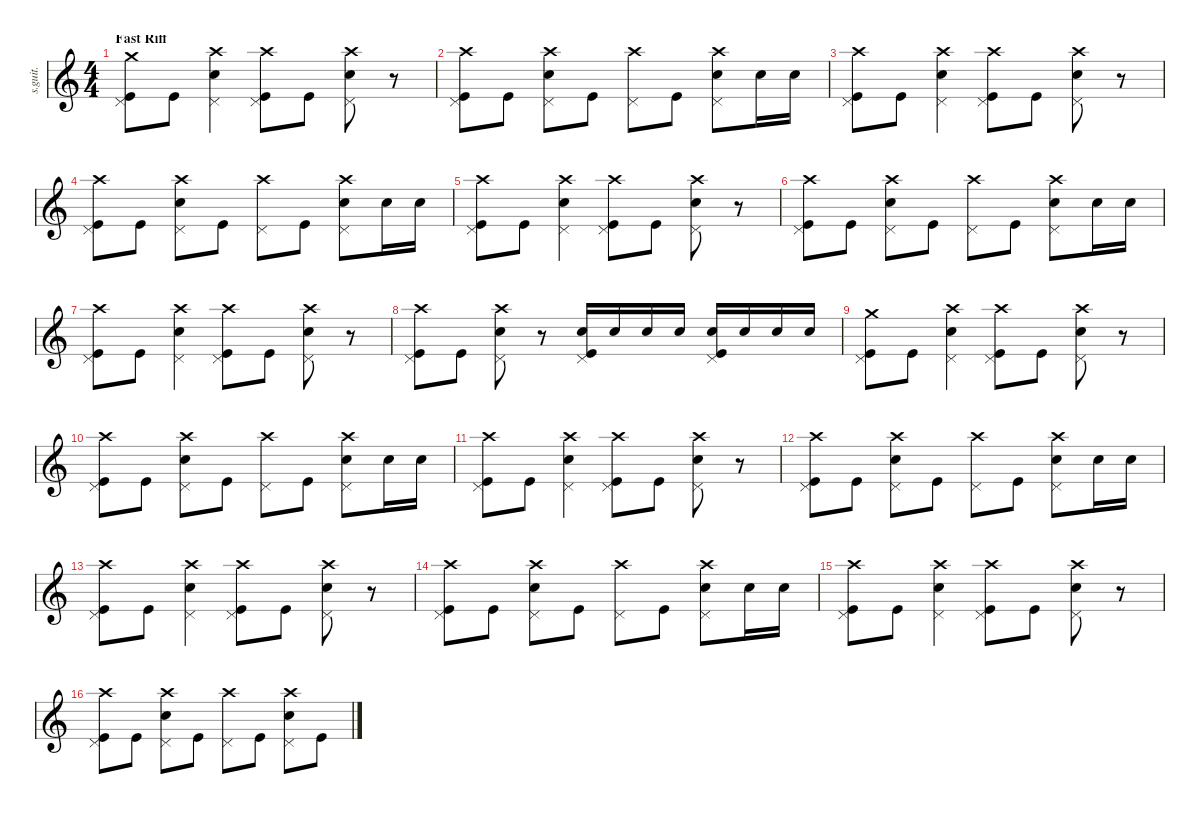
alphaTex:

\defaultSystemsLayout 4
\hideDynamics
\bracketExtendMode nobrackets
\track ("Dave Grohl" "s.guit.") {instrument percussion}
\staff {score}
\articulation defaults
\ts (4 4)
\section ("" "Fast Riff")
\tempo (210 hide)
\clef g2
\ks c
("Crash medium (hit)" "Kick (hit)" "Pedal Hi-Hat (hit)").8{lyrics (0 "") lyrics (1 "") lyrics (2 "") lyrics (3 "") lyrics (4 "") dy f} "Kick (hit)".8{lyrics (0 "") lyrics (1 "") lyrics (2 "") lyrics (3 "") lyrics (4 "")} ("Snare (hit) 2" "Crash high (hit)" "Pedal Hi-Hat (hit)").4{lyrics (0 "") lyrics (1 "") lyrics (2 "") lyrics (3 "") lyrics (4 "")} ("Kick (hit)" "Crash high (hit)" "Pedal Hi-Hat (hit)").8{lyrics (0 "") lyrics (1 "") lyrics (2 "") lyrics (3 "") lyrics (4 "")} "Kick (hit)".8{lyrics (0 "") lyrics (1 "") lyrics (2 "") lyrics (3 "") lyrics (4 "")} ("Snare (hit) 2" "Crash high (hit)" "Pedal Hi-Hat (hit)").8{lyrics (0 "") lyrics (1 "") lyrics (2 "") lyrics (3 "") lyrics (4 "")} r.8 |
("Kick (hit)" "Crash high (hit)" "Pedal Hi-Hat (hit)").8{lyrics (0 "") lyrics (1 "") lyrics (2 "") lyrics (3 "") lyrics (4 "")} "Kick (hit)".8{lyrics (0 "") lyrics (1 "") lyrics (2 "") lyrics (3 "") lyrics (4 "")} ("Snare (hit) 2" "Crash high (hit)" "Pedal Hi-Hat (hit)").8{lyrics (0 "") lyrics (1 "") lyrics (2 "") lyrics (3 "") lyrics (4 "")} "Kick (hit)".8{lyrics (0 "") lyrics (1 "") lyrics (2 "") lyrics (3 "") lyrics (4 "")} ("Crash high (hit)" "Pedal Hi-Hat (hit)").8{lyrics (0 "") lyrics (1 "") lyrics (2 "") lyrics (3 "") lyrics (4 "")} "Kick (hit)".8{lyrics (0 "") lyrics (1 "") lyrics (2 "") lyrics (3 "") lyrics (4 "")} ("Snare (hit) 2" "Crash high (hit)" "Pedal Hi-Hat (hit)").8{lyrics (0 "") lyrics (1 "") lyrics (2 "") lyrics (3 "") lyrics (4 "")} "Snare (hit) 2".16{lyrics (0 "") lyrics (1 "") lyrics (2 "") lyrics (3 "") lyrics (4 "") dy mf} "Snare (hit) 2".16{lyrics (0 "") lyrics (1 "") lyrics (2 "") lyrics (3 "") lyrics (4 "")} |
("Kick (hit)" "Crash high (hit)" "Pedal Hi-Hat (hit)").8{lyrics (0 "") lyrics (1 "") lyrics (2 "") lyrics (3 "") lyrics (4 "") dy f} "Kick (hit)".8{lyrics (0 "") lyrics (1 "") lyrics (2 "") lyrics (3 "") lyrics (4 "")} ("Snare (hit) 2" "Crash high (hit)" "Pedal Hi-Hat (hit)").4{lyrics (0 "") lyrics (1 "") lyrics (2 "") lyrics (3 "") lyrics (4 "")} ("Kick (hit)" "Crash high (hit)" "Pedal Hi-Hat (hit)").8{lyrics (0 "") lyrics (1 "") lyrics (2 "") lyrics (3 "") lyrics (4 "")} "Kick (hit)".8{lyrics (0 "") lyrics (1 "") lyrics (2 "") lyrics (3 "") lyrics (4 "")} ("Snare (hit) 2" "Crash high (hit)" "Pedal Hi-Hat (hit)").8{lyrics (0 "") lyrics (1 "") lyrics (2 "") lyrics (3 "") lyrics (4 "")} r.8 |
("Kick (hit)" "Crash high (hit)" "Pedal Hi-Hat (hit)").8{lyrics (0 "") lyrics (1 "") lyrics (2 "") lyrics (3 "") lyrics (4 "")} "Kick (hit)".8{lyrics (0 "") lyrics (1 "") lyrics (2 "") lyrics (3 "") lyrics (4 "")} ("Snare (hit) 2" "Crash high (hit)" "Pedal Hi-Hat (hit)").8{lyrics (0 "") lyrics (1 "") lyrics (2 "") lyrics (3 "") lyrics (4 "")} "Kick (hit)".8{lyrics (0 "") lyrics (1 "") lyrics (2 "") lyrics (3 "") lyrics (4 "")} ("Crash high (hit)" "Pedal Hi-Hat (hit)").8{lyrics (0 "") lyrics (1 "") lyrics (2 "") lyrics (3 "") lyrics (4 "")} "Kick (hit)".8{lyrics (0 "") lyrics (1 "") lyrics (2 "") lyrics (3 "") lyrics (4 "")} ("Snare (hit) 2" "Crash high (hit)" "Pedal Hi-Hat (hit)").8{lyrics (0 "") lyrics (1 "") lyrics (2 "") lyrics (3 "") lyrics (4 "")} "Snare (hit) 2".16{lyrics (0 "") lyrics (1 "") lyrics (2 "") lyrics (3 "") lyrics (4 "") dy mf} "Snare (hit) 2".16{lyrics (0 "") lyrics (1 "") lyrics (2 "") lyrics (3 "") lyrics (4 "")} |
("Kick (hit)" "Crash high (hit)" "Pedal Hi-Hat (hit)").8{lyrics (0 "") lyrics (1 "") lyrics (2 "") lyrics (3 "") lyrics (4 "") dy f} "Kick (hit)".8{lyrics (0 "") lyrics (1 "") lyrics (2 "") lyrics (3 "") lyrics (4 "")} ("Snare (hit) 2" "Crash high (hit)" "Pedal Hi-Hat (hit)").4{lyrics (0 "") lyrics (1 "") lyrics (2 "") lyrics (3 "") lyrics (4 "")} ("Kick (hit)" "Crash high (hit)" "Pedal Hi-Hat (hit)").8{lyrics (0 "") lyrics (1 "") lyrics (2 "") lyrics (3 "") lyrics (4 "")} "Kick (hit)".8{lyrics (0 "") lyrics (1 "") lyrics (2 "") lyrics (3 "") lyrics (4 "")} ("Snare (hit) 2" "Crash high (hit)" "Pedal Hi-Hat (hit)").8{lyrics (0 "") lyrics (1 "") lyrics (2 "") lyrics (3 "") lyrics (4 "")} r.8 |
("Kick (hit)" "Crash high (hit)" "Pedal Hi-Hat (hit)").8{lyrics (0 "") lyrics (1 "") lyrics (2 "") lyrics (3 "") lyrics (4 "")} "Kick (hit)".8{lyrics (0 "") lyrics (1 "") lyrics (2 "") lyrics (3 "") lyrics (4 "")} ("Snare (hit) 2" "Crash high (hit)" "Pedal Hi-Hat (hit)").8{lyrics (0 "") lyrics (1 "") lyrics (2 "") lyrics (3 "") lyrics (4 "")} "Kick (hit)".8{lyrics (0 "") lyrics (1 "") lyrics (2 "") lyrics (3 "") lyrics (4 "")} ("Crash high (hit)" "Pedal Hi-Hat (hit)").8{lyrics (0 "") lyrics (1 "") lyrics (2 "") lyrics (3 "") lyrics (4 "")} "Kick (hit)".8{lyrics (0 "") lyrics (1 "") lyrics (2 "") lyrics (3 "") lyrics (4 "")} ("Snare (hit) 2" "Crash high (hit)" "Pedal Hi-Hat (hit)").8{lyrics (0 "") lyrics (1 "") lyrics (2 "") lyrics (3 "") lyrics (4 "")} "Snare (hit) 2".16{lyrics (0 "") lyrics (1 "") lyrics (2 "") lyrics (3 "") lyrics (4 "") dy mf} "Snare (hit) 2".16{lyrics (0 "") lyrics (1 "") lyrics (2 "") lyrics (3 "") lyrics (4 "")} |
("Kick (hit)" "Crash high (hit)" "Pedal Hi-Hat (hit)").8{lyrics (0 "") lyrics (1 "") lyrics (2 "") lyrics (3 "") lyrics (4 "") dy f} "Kick (hit)".8{lyrics (0 "") lyrics (1 "") lyrics (2 "") lyrics (3 "") lyrics (4 "")} ("Snare (hit) 2" "Crash high (hit)" "Pedal Hi-Hat (hit)").4{lyrics (0 "") lyrics (1 "") lyrics (2 "") lyrics (3 "") lyrics (4 "")} ("Kick (hit)" "Crash high (hit)" "Pedal Hi-Hat (hit)").8{lyrics (0 "") lyrics (1 "") lyrics (2 "") lyrics (3 "") lyrics (4 "")} "Kick (hit)".8{lyrics (0 "") lyrics (1 "") lyrics (2 "") lyrics (3 "") lyrics (4 "")} ("Snare (hit) 2" "Crash high (hit)" "Pedal Hi-Hat (hit)").8{lyrics (0 "") lyrics (1 "") lyrics (2 "") lyrics (3 "") lyrics (4 "")} r.8 |
("Kick (hit)" "Crash high (hit)" "Pedal Hi-Hat (hit)").8{lyrics (0 "") lyrics (1 "") lyrics (2 "") lyrics (3 "") lyrics (4 "")} "Kick (hit)".8{lyrics (0 "") lyrics (1 "") lyrics (2 "") lyrics (3 "") lyrics (4 "")} ("Snare (hit) 2" "Crash high (hit)" "Pedal Hi-Hat (hit)").8{lyrics (0 "") lyrics (1 "") lyrics (2 "") lyrics (3 "") lyrics (4 "")} r.8 ("Snare (hit) 2" "Kick (hit)" "Pedal Hi-Hat (hit)").16{lyrics (0 "") lyrics (1 "") lyrics (2 "") lyrics (3 "") lyrics (4 "")} "Snare (hit) 2".16{lyrics (0 "") lyrics (1 "") lyrics (2 "") lyrics (3 "") lyrics (4 "") dy mf} "Snare (hit) 2".16{lyrics (0 "") lyrics (1 "") lyrics (2 "") lyrics (3 "") lyrics (4 "")} "Snare (hit) 2".16{lyrics (0 "") lyrics (1 "") lyrics (2 "") lyrics (3 "") lyrics (4 "")} ("Snare (hit) 2" "Kick (hit)" "Pedal Hi-Hat (hit)").16{lyrics (0 "") lyrics (1 "") lyrics (2 "") lyrics (3 "") lyrics (4 "") dy f} "Snare (hit) 2".16{lyrics (0 "") lyrics (1 "") lyrics (2 "") lyrics (3 "") lyrics (4 "")} "Snare (hit) 2".16{lyrics (0 "") lyrics (1 "") lyrics (2 "") lyrics (3 "") lyrics (4 "") dy mp} "Snare (hit) 2".16{lyrics (0 "") lyrics (1 "") lyrics (2 "") lyrics (3 "") lyrics (4 "") dy mf} |
("Crash medium (hit)" "Kick (hit)" "Pedal Hi-Hat (hit)").8{lyrics (0 "") lyrics (1 "") lyrics (2 "") lyrics (3 "") lyrics (4 "") dy f} "Kick (hit)".8{lyrics (0 "") lyrics (1 "") lyrics (2 "") lyrics (3 "") lyrics (4 "")} ("Snare (hit) 2" "Crash high (hit)" "Pedal Hi-Hat (hit)").4{lyrics (0 "") lyrics (1 "") lyrics (2 "") lyrics (3 "") lyrics (4 "")} ("Kick (hit)" "Crash high (hit)" "Pedal Hi-Hat (hit)").8{lyrics (0 "") lyrics (1 "") lyrics (2 "") lyrics (3 "") lyrics (4 "")} "Kick (hit)".8{lyrics (0 "") lyrics (1 "") lyrics (2 "") lyrics (3 "") lyrics (4 "")} ("Snare (hit) 2" "Crash high (hit)" "Pedal Hi-Hat (hit)").8{lyrics (0 "") lyrics (1 "") lyrics (2 "") lyrics (3 "") lyrics (4 "")} r.8 |
("Kick (hit)" "Crash high (hit)" "Pedal Hi-Hat (hit)").8{lyrics (0 "") lyrics (1 "") lyrics (2 "") lyrics (3 "") lyrics (4 "")} "Kick (hit)".8{lyrics (0 "") lyrics (1 "") lyrics (2 "") lyrics (3 "") lyrics (4 "")} ("Snare (hit) 2" "Crash high (hit)" "Pedal Hi-Hat (hit)").8{lyrics (0 "") lyrics (1 "") lyrics (2 "") lyrics (3 "") lyrics (4 "")} "Kick (hit)".8{lyrics (0 "") lyrics (1 "") lyrics (2 "") lyrics (3 "") lyrics (4 "")} ("Crash high (hit)" "Pedal Hi-Hat (hit)").8{lyrics (0 "") lyrics (1 "") lyrics (2 "") lyrics (3 "") lyrics (4 "")} "Kick (hit)".8{lyrics (0 "") lyrics (1 "") lyrics (2 "") lyrics (3 "") lyrics (4 "")} ("Snare (hit) 2" "Crash high (hit)" "Pedal Hi-Hat (hit)").8{lyrics (0 "") lyrics (1 "") lyrics (2 "") lyrics (3 "") lyrics (4 "")} "Snare (hit) 2".16{lyrics (0 "") lyrics (1 "") lyrics (2 "") lyrics (3 "") lyrics (4 "") dy mf} "Snare (hit) 2".16{lyrics (0 "") lyrics (1 "") lyrics (2 "") lyrics (3 "") lyrics (4 "")} |
("Kick (hit)" "Crash high (hit)" "Pedal Hi-Hat (hit)").8{lyrics (0 "") lyrics (1 "") lyrics (2 "") lyrics (3 "") lyrics (4 "") dy f} "Kick (hit)".8{lyrics (0 "") lyrics (1 "") lyrics (2 "") lyrics (3 "") lyrics (4 "")} ("Snare (hit) 2" "Crash high (hit)" "Pedal Hi-Hat (hit)").4{lyrics (0 "") lyrics (1 "") lyrics (2 "") lyrics (3 "") lyrics (4 "")} ("Kick (hit)" "Crash high (hit)" "Pedal Hi-Hat (hit)").8{lyrics (0 "") lyrics (1 "") lyrics (2 "") lyrics (3 "") lyrics (4 "")} "Kick (hit)".8{lyrics (0 "") lyrics (1 "") lyrics (2 "") lyrics (3 "") lyrics (4 "")} ("Snare (hit) 2" "Crash high (hit)" "Pedal Hi-Hat (hit)").8{lyrics (0 "") lyrics (1 "") lyrics (2 "") lyrics (3 "") lyrics (4 "")} r.8 |
("Kick (hit)" "Crash high (hit)" "Pedal Hi-Hat (hit)").8{lyrics (0 "") lyrics (1 "") lyrics (2 "") lyrics (3 "") lyrics (4 "")} "Kick (hit)".8{lyrics (0 "") lyrics (1 "") lyrics (2 "") lyrics (3 "") lyrics (4 "")} ("Snare (hit) 2" "Crash high (hit)" "Pedal Hi-Hat (hit)").8{lyrics (0 "") lyrics (1 "") lyrics (2 "") lyrics (3 "") lyrics (4 "")} "Kick (hit)".8{lyrics (0 "") lyrics (1 "") lyrics (2 "") lyrics (3 "") lyrics (4 "")} ("Crash high (hit)" "Pedal Hi-Hat (hit)").8{lyrics (0 "") lyrics (1 "") lyrics (2 "") lyrics (3 "") lyrics (4 "")} "Kick (hit)".8{lyrics (0 "") lyrics (1 "") lyrics (2 "") lyrics (3 "") lyrics (4 "")} ("Snare (hit) 2" "Crash high (hit)" "Pedal Hi-Hat (hit)").8{lyrics (0 "") lyrics (1 "") lyrics (2 "") lyrics (3 "") lyrics (4 "")} "Snare (hit) 2".16{lyrics (0 "") lyrics (1 "") lyrics (2 "") lyrics (3 "") lyrics (4 "") dy mf} "Snare (hit) 2".16{lyrics (0 "") lyrics (1 "") lyrics (2 "") lyrics (3 "") lyrics (4 "")} |
("Kick (hit)" "Crash high (hit)" "Pedal Hi-Hat (hit)").8{lyrics (0 "") lyrics (1 "") lyrics (2 "") lyrics (3 "") lyrics (4 "") dy f} "Kick (hit)".8{lyrics (0 "") lyrics (1 "") lyrics (2 "") lyrics (3 "") lyrics (4 "")} ("Snare (hit) 2" "Crash high (hit)" "Pedal Hi-Hat (hit)").4{lyrics (0 "") lyrics (1 "") lyrics (2 "") lyrics (3 "") lyrics (4 "")} ("Kick (hit)" "Crash high (hit)" "Pedal Hi-Hat (hit)").8{lyrics (0 "") lyrics (1 "") lyrics (2 "") lyrics (3 "") lyrics (4 "")} "Kick (hit)".8{lyrics (0 "") lyrics (1 "") lyrics (2 "") lyrics (3 "") lyrics (4 "")} ("Snare (hit) 2" "Crash high (hit)" "Pedal Hi-Hat (hit)").8{lyrics (0 "") lyrics (1 "") lyrics (2 "") lyrics (3 "") lyrics (4 "")} r.8 |
("Kick (hit)" "Crash high (hit)" "Pedal Hi-Hat (hit)").8{lyrics (0 "") lyrics (1 "") lyrics (2 "") lyrics (3 "") lyrics (4 "")} "Kick (hit)".8{lyrics (0 "") lyrics (1 "") lyrics (2 "") lyrics (3 "") lyrics (4 "")} ("Snare (hit) 2" "Crash high (hit)" "Pedal Hi-Hat (hit)").8{lyrics (0 "") lyrics (1 "") lyrics (2 "") lyrics (3 "") lyrics (4 "")} "Kick (hit)".8{lyrics (0 "") lyrics (1 "") lyrics (2 "") lyrics (3 "") lyrics (4 "")} ("Crash high (hit)" "Pedal Hi-Hat (hit)").8{lyrics (0 "") lyrics (1 "") lyrics (2 "") lyrics (3 "") lyrics (4 "")} "Kick (hit)".8{lyrics (0 "") lyrics (1 "") lyrics (2 "") lyrics (3 "") lyrics (4 "")} ("Snare (hit) 2" "Crash high (hit)" "Pedal Hi-Hat (hit)").8{lyrics (0 "") lyrics (1 "") lyrics (2 "") lyrics (3 "") lyrics (4 "")} "Snare (hit) 2".16{lyrics (0 "") lyrics (1 "") lyrics (2 "") lyrics (3 "") lyrics (4 "") dy mf} "Snare (hit) 2".16{lyrics (0 "") lyrics (1 "") lyrics (2 "") lyrics (3 "") lyrics (4 "")} |
("Kick (hit)" "Crash high (hit)" "Pedal Hi-Hat (hit)").8{lyrics (0 "") lyrics (1 "") lyrics (2 "") lyrics (3 "") lyrics (4 "") dy f} "Kick (hit)".8{lyrics (0 "") lyrics (1 "") lyrics (2 "") lyrics (3 "") lyrics (4 "")} ("Snare (hit) 2" "Crash high (hit)" "Pedal Hi-Hat (hit)").4{lyrics (0 "") lyrics (1 "") lyrics (2 "") lyrics (3 "") lyrics (4 "")} ("Kick (hit)" "Crash high (hit)" "Pedal Hi-Hat (hit)").8{lyrics (0 "") lyrics (1 "") lyrics (2 "") lyrics (3 "") lyrics (4 "")} "Kick (hit)".8{lyrics (0 "") lyrics (1 "") lyrics (2 "") lyrics (3 "") lyrics (4 "")} ("Snare (hit) 2" "Crash high (hit)" "Pedal Hi-Hat (hit)").8{lyrics (0 "") lyrics (1 "") lyrics (2 "") lyrics (3 "") lyrics (4 "")} r.8 |
("Kick (hit)" "Crash high (hit)" "Pedal Hi-Hat (hit)").8{lyrics (0 "") lyrics (1 "") lyrics (2 "") lyrics (3 "") lyrics (4 "")} "Kick (hit)".8{lyrics (0 "") lyrics (1 "") lyrics (2 "") lyrics (3 "") lyrics (4 "")} ("Snare (hit) 2" "Crash high (hit)" "Pedal Hi-Hat (hit)").8{lyrics (0 "") lyrics (1 "") lyrics (2 "") lyrics (3 "") lyrics (4 "")} "Kick (hit)".8{lyrics (0 "") lyrics (1 "") lyrics (2 "") lyrics (3 "") lyrics (4 "")} ("Crash high (hit)" "Pedal Hi-Hat (hit)").8{lyrics (0 "") lyrics (1 "") lyrics (2 "") lyrics (3 "") lyrics (4 "")} "Kick (hit)".8{lyrics (0 "") lyrics (1 "") lyrics (2 "") lyrics (3 "") lyrics (4 "")} ("Snare (hit) 2" "Crash high (hit)" "Pedal Hi-Hat (hit)").8{lyrics (0 "") lyrics (1 "") lyrics (2 "") lyrics (3 "") lyrics (4 "")} "Kick (hit)".8{lyrics (0 "") lyrics (1 "") lyrics (2 "") lyrics (3 "") lyrics (4 "")}
